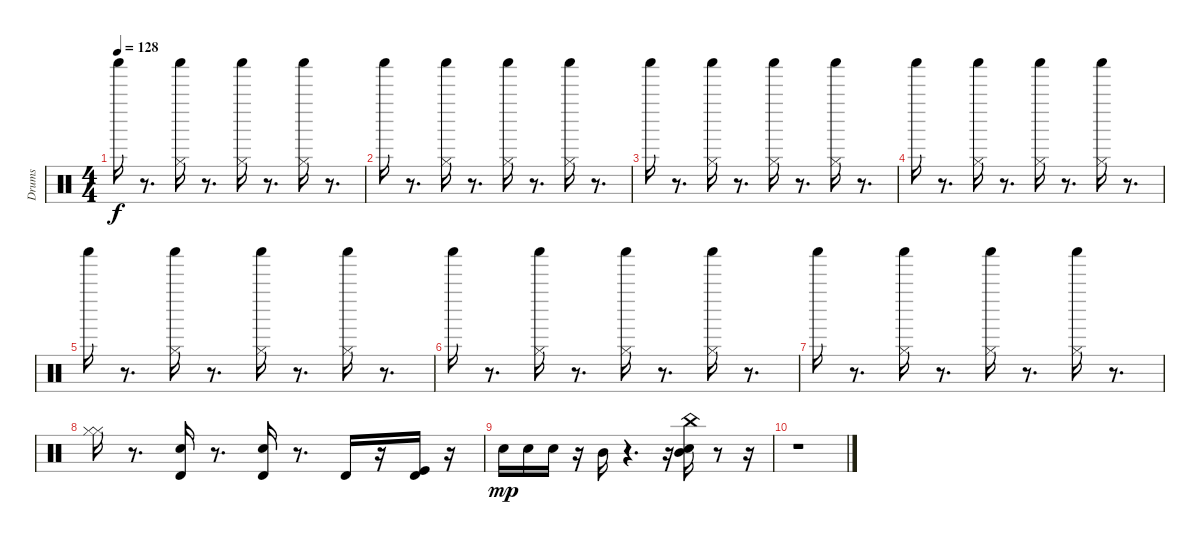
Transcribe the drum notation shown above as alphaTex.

\track ("Drums  " "Drums  ") {instrument percussion}
\staff {score}
\articulation defaults
\ts (4 4)
\tempo 128
\clef neutral
\ks c "Shaker (hit)".16{dy f}
r.8{d} ("Shaker (hit)" "Hi-Hat (closed)").16 r.8{d} ("Shaker (hit)" "Hi-Hat (closed)").16 r.8{d} ("Shaker (hit)" "Hi-Hat (closed)").16 r.8{d} |
"Shaker (hit)".16 r.8{d} ("Shaker (hit)" "Hi-Hat (closed)").16 r.8{d} ("Shaker (hit)" "Hi-Hat (closed)").16 r.8{d} ("Shaker (hit)" "Hi-Hat (closed)").16 r.8{d} |
"Shaker (hit)".16 r.8{d} ("Shaker (hit)" "Hi-Hat (closed)").16 r.8{d} ("Shaker (hit)" "Hi-Hat (closed)").16 r.8{d} ("Shaker (hit)" "Hi-Hat (closed)").16 r.8{d} |
"Shaker (hit)".16 r.8{d} ("Shaker (hit)" "Hi-Hat (closed)").16 r.8{d} ("Shaker (hit)" "Hi-Hat (closed)").16 r.8{d} ("Shaker (hit)" "Hi-Hat (closed)").16 r.8{d} |
"Shaker (hit)".16 r.8{d} ("Shaker (hit)" "Hi-Hat (closed)").16 r.8{d} ("Shaker (hit)" "Hi-Hat (closed)").16 r.8{d} ("Shaker (hit)" "Hi-Hat (closed)").16 r.8{d} |
"Shaker (hit)".16 r.8{d} ("Shaker (hit)" "Hi-Hat (closed)").16 r.8{d} ("Shaker (hit)" "Hi-Hat (closed)").16 r.8{d} ("Shaker (hit)" "Hi-Hat (closed)").16 r.8{d} |
"Shaker (hit)".16 r.8{d} ("Shaker (hit)" "Hi-Hat (closed)").16 r.8{d} ("Shaker (hit)" "Hi-Hat (closed)").16 r.8{d} ("Shaker (hit)" "Hi-Hat (closed)").16 r.8{d} |
("Hi-Hat (closed)" "Hi-Hat (closed)").16 r.8{d} ("Timbale high (hit)" "Snare (hit) 2").16 r.8{d} ("Timbale high (hit)" "Snare (hit) 2").16 r.8{d} "Timbale high (hit)".16 r.16 ("Timbale high (hit)" "Kick (hit)").16 r.16 |
"Snare (hit) 2".16{dy mp} "Snare (hit) 2".16 "Snare (hit) 2".16 r.16 "Mid Tom (hit)".16 r.4{d} r.16 ("Snare (hit) 2" "Mid Tom (hit)" "China (hit)").16 r.8 r.16 |
r.1
